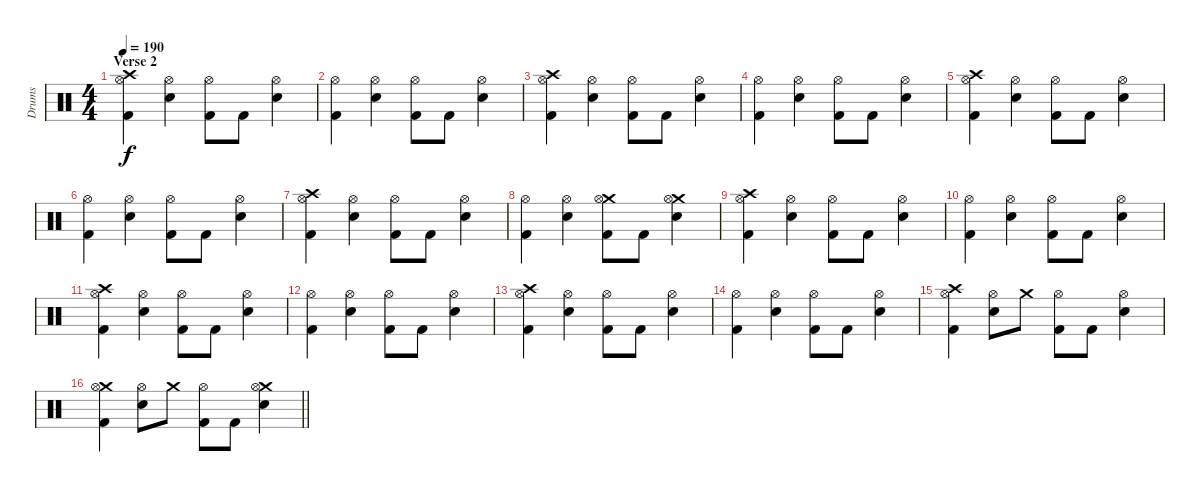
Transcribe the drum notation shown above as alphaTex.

\track ("Drums" "Drums") {instrument percussion}
\staff {score}
\articulation defaults
\ts (4 4)
\section ("" "Verse 2")
\tempo 190
\clef neutral
\ks c
("Crash high (hit)" "Hi-Hat (open)" "Kick (hit) 2").4{dy f} ("Hi-Hat (open)" "Electric Snare (hit)").4 ("Hi-Hat (open)" "Kick (hit) 2").8 "Kick (hit) 2".8 ("Hi-Hat (open)" "Electric Snare (hit)").4 |
("Hi-Hat (open)" "Kick (hit) 2").4 ("Hi-Hat (open)" "Electric Snare (hit)").4 ("Hi-Hat (open)" "Kick (hit) 2").8 "Kick (hit) 2".8 ("Hi-Hat (open)" "Electric Snare (hit)").4 |
("Crash high (hit)" "Hi-Hat (open)" "Kick (hit) 2").4 ("Hi-Hat (open)" "Electric Snare (hit)").4 ("Hi-Hat (open)" "Kick (hit) 2").8 "Kick (hit) 2".8 ("Hi-Hat (open)" "Electric Snare (hit)").4 |
("Hi-Hat (open)" "Kick (hit) 2").4 ("Hi-Hat (open)" "Electric Snare (hit)").4 ("Hi-Hat (open)" "Kick (hit) 2").8 "Kick (hit) 2".8 ("Hi-Hat (open)" "Electric Snare (hit)").4 |
("Crash high (hit)" "Hi-Hat (open)" "Kick (hit) 2").4 ("Hi-Hat (open)" "Electric Snare (hit)").4 ("Hi-Hat (open)" "Kick (hit) 2").8 "Kick (hit) 2".8 ("Hi-Hat (open)" "Electric Snare (hit)").4 |
("Hi-Hat (open)" "Kick (hit) 2").4 ("Hi-Hat (open)" "Electric Snare (hit)").4 ("Hi-Hat (open)" "Kick (hit) 2").8 "Kick (hit) 2".8 ("Hi-Hat (open)" "Electric Snare (hit)").4 |
("Crash high (hit)" "Hi-Hat (open)" "Kick (hit) 2").4 ("Hi-Hat (open)" "Electric Snare (hit)").4 ("Hi-Hat (open)" "Kick (hit) 2").8 "Kick (hit) 2".8 ("Hi-Hat (open)" "Electric Snare (hit)").4 |
("Hi-Hat (open)" "Kick (hit) 2").4 ("Hi-Hat (open)" "Electric Snare (hit)").4 ("Crash medium (hit)" "Hi-Hat (open)" "Kick (hit) 2").8 "Kick (hit) 2".8 ("Crash medium (hit)" "Hi-Hat (open)" "Electric Snare (hit)").4 |
("Crash high (hit)" "Hi-Hat (open)" "Kick (hit) 2").4 ("Hi-Hat (open)" "Electric Snare (hit)").4 ("Hi-Hat (open)" "Kick (hit) 2").8 "Kick (hit) 2".8 ("Hi-Hat (open)" "Electric Snare (hit)").4 |
("Hi-Hat (open)" "Kick (hit) 2").4 ("Hi-Hat (open)" "Electric Snare (hit)").4 ("Hi-Hat (open)" "Kick (hit) 2").8 "Kick (hit) 2".8 ("Hi-Hat (open)" "Electric Snare (hit)").4 |
("Crash high (hit)" "Hi-Hat (open)" "Kick (hit) 2").4 ("Hi-Hat (open)" "Electric Snare (hit)").4 ("Hi-Hat (open)" "Kick (hit) 2").8 "Kick (hit) 2".8 ("Hi-Hat (open)" "Electric Snare (hit)").4 |
("Hi-Hat (open)" "Kick (hit) 2").4 ("Hi-Hat (open)" "Electric Snare (hit)").4 ("Hi-Hat (open)" "Kick (hit) 2").8 "Kick (hit) 2".8 ("Hi-Hat (open)" "Electric Snare (hit)").4 |
("Crash high (hit)" "Hi-Hat (open)" "Kick (hit) 2").4 ("Hi-Hat (open)" "Electric Snare (hit)").4 ("Hi-Hat (open)" "Kick (hit) 2").8 "Kick (hit) 2".8 ("Hi-Hat (open)" "Electric Snare (hit)").4 |
("Hi-Hat (open)" "Kick (hit) 2").4 ("Hi-Hat (open)" "Electric Snare (hit)").4 ("Hi-Hat (open)" "Kick (hit) 2").8 "Kick (hit) 2".8 ("Hi-Hat (open)" "Electric Snare (hit)").4 |
("Crash high (hit)" "Hi-Hat (open)" "Kick (hit) 2").4 ("Hi-Hat (open)" "Electric Snare (hit)").8 "Crash medium (hit)".8 ("Hi-Hat (open)" "Kick (hit) 2").8 "Kick (hit) 2".8 ("Hi-Hat (open)" "Electric Snare (hit)").4 |
\barLineRight lightlight
("Crash medium (hit)" "Hi-Hat (open)" "Kick (hit) 2").4 ("Hi-Hat (open)" "Electric Snare (hit)").8 "Crash medium (hit)".8 ("Hi-Hat (open)" "Kick (hit) 2").8 "Kick (hit) 2".8 ("Crash medium (hit)" "Hi-Hat (open)" "Electric Snare (hit)").4
